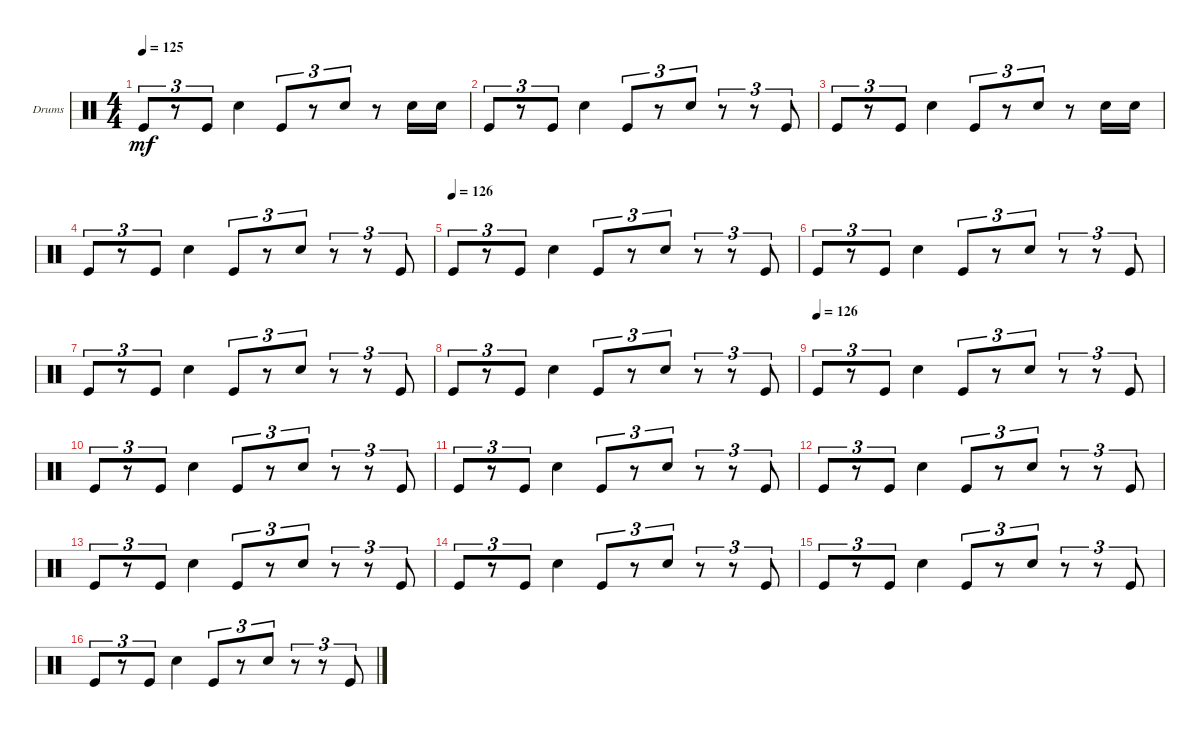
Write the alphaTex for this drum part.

\defaultSystemsLayout 4
\bracketExtendMode groupsimilarinstruments
\firstSystemTrackNameOrientation horizontal
\otherSystemsTrackNameOrientation horizontal
\track ("Drumkit" "Drums") {instrument percussion}
\staff {score}
\articulation defaults
\ts (4 4)
\tempo 125
\clef neutral
\scale
0.333333
\ks c "Kick (hit)".8{tu (3 2) dy mf}
r.8{tu (3 2)} "Kick (hit)".8{tu (3 2)} "Snare (hit) 2".4 "Kick (hit)".8{tu (3 2)} r.8{tu (3 2)} "Snare (hit) 2".8{tu (3 2)} r.8 "Snare (hit) 2".16 "Snare (hit) 2".16 |
\scale
0.333333 "Kick (hit)".8{tu (3 2)} r.8{tu (3 2)} "Kick (hit)".8{tu (3 2)} "Snare (hit) 2".4 "Kick (hit)".8{tu (3 2)} r.8{tu (3 2)} "Snare (hit) 2".8{tu (3 2)} r.8{tu (3 2)} r.8{tu (3 2)} "Kick (hit)".8{tu (3 2)} |
\scale
0.333333 "Kick (hit)".8{tu (3 2)} r.8{tu (3 2)} "Kick (hit)".8{tu (3 2)} "Snare (hit) 2".4 "Kick (hit)".8{tu (3 2)} r.8{tu (3 2)} "Snare (hit) 2".8{tu (3 2)} r.8 "Snare (hit) 2".16 "Snare (hit) 2".16 |
\scale
0.333333 "Kick (hit)".8{tu (3 2)} r.8{tu (3 2)} "Kick (hit)".8{tu (3 2)} "Snare (hit) 2".4 "Kick (hit)".8{tu (3 2)} r.8{tu (3 2)} "Snare (hit) 2".8{tu (3 2)} r.8{tu (3 2)} r.8{tu (3 2)} "Kick (hit)".8{tu (3 2)} |
\tempo 126
\scale
0.333333 "Kick (hit)".8{tu (3 2)} r.8{tu (3 2)} "Kick (hit)".8{tu (3 2)} "Snare (hit) 2".4 "Kick (hit)".8{tu (3 2)} r.8{tu (3 2)} "Snare (hit) 2".8{tu (3 2)} r.8{tu (3 2)} r.8{tu (3 2)} "Kick (hit)".8{tu (3 2)} |
\scale
0.333333 "Kick (hit)".8{tu (3 2)} r.8{tu (3 2)} "Kick (hit)".8{tu (3 2)} "Snare (hit) 2".4 "Kick (hit)".8{tu (3 2)} r.8{tu (3 2)} "Snare (hit) 2".8{tu (3 2)} r.8{tu (3 2)} r.8{tu (3 2)} "Kick (hit)".8{tu (3 2)} |
\scale
0.333333 "Kick (hit)".8{tu (3 2)} r.8{tu (3 2)} "Kick (hit)".8{tu (3 2)} "Snare (hit) 2".4 "Kick (hit)".8{tu (3 2)} r.8{tu (3 2)} "Snare (hit) 2".8{tu (3 2)} r.8{tu (3 2)} r.8{tu (3 2)} "Kick (hit)".8{tu (3 2)} |
\scale
0.333333 "Kick (hit)".8{tu (3 2)} r.8{tu (3 2)} "Kick (hit)".8{tu (3 2)} "Snare (hit) 2".4 "Kick (hit)".8{tu (3 2)} r.8{tu (3 2)} "Snare (hit) 2".8{tu (3 2)} r.8{tu (3 2)} r.8{tu (3 2)} "Kick (hit)".8{tu (3 2)} |
\tempo 126
\scale
0.333333 "Kick (hit)".8{tu (3 2)} r.8{tu (3 2)} "Kick (hit)".8{tu (3 2)} "Snare (hit) 2".4 "Kick (hit)".8{tu (3 2)} r.8{tu (3 2)} "Snare (hit) 2".8{tu (3 2)} r.8{tu (3 2)} r.8{tu (3 2)} "Kick (hit)".8{tu (3 2)} |
\scale
0.333333 "Kick (hit)".8{tu (3 2)} r.8{tu (3 2)} "Kick (hit)".8{tu (3 2)} "Snare (hit) 2".4 "Kick (hit)".8{tu (3 2)} r.8{tu (3 2)} "Snare (hit) 2".8{tu (3 2)} r.8{tu (3 2)} r.8{tu (3 2)} "Kick (hit)".8{tu (3 2)} |
\scale
0.333333 "Kick (hit)".8{tu (3 2)} r.8{tu (3 2)} "Kick (hit)".8{tu (3 2)} "Snare (hit) 2".4 "Kick (hit)".8{tu (3 2)} r.8{tu (3 2)} "Snare (hit) 2".8{tu (3 2)} r.8{tu (3 2)} r.8{tu (3 2)} "Kick (hit)".8{tu (3 2)} |
\scale
0.333333 "Kick (hit)".8{tu (3 2)} r.8{tu (3 2)} "Kick (hit)".8{tu (3 2)} "Snare (hit) 2".4 "Kick (hit)".8{tu (3 2)} r.8{tu (3 2)} "Snare (hit) 2".8{tu (3 2)} r.8{tu (3 2)} r.8{tu (3 2)} "Kick (hit)".8{tu (3 2)} |
\scale
0.333333 "Kick (hit)".8{tu (3 2)} r.8{tu (3 2)} "Kick (hit)".8{tu (3 2)} "Snare (hit) 2".4 "Kick (hit)".8{tu (3 2)} r.8{tu (3 2)} "Snare (hit) 2".8{tu (3 2)} r.8{tu (3 2)} r.8{tu (3 2)} "Kick (hit)".8{tu (3 2)} |
\scale
0.333333 "Kick (hit)".8{tu (3 2)} r.8{tu (3 2)} "Kick (hit)".8{tu (3 2)} "Snare (hit) 2".4 "Kick (hit)".8{tu (3 2)} r.8{tu (3 2)} "Snare (hit) 2".8{tu (3 2)} r.8{tu (3 2)} r.8{tu (3 2)} "Kick (hit)".8{tu (3 2)} |
\scale
0.333333 "Kick (hit)".8{tu (3 2)} r.8{tu (3 2)} "Kick (hit)".8{tu (3 2)} "Snare (hit) 2".4 "Kick (hit)".8{tu (3 2)} r.8{tu (3 2)} "Snare (hit) 2".8{tu (3 2)} r.8{tu (3 2)} r.8{tu (3 2)} "Kick (hit)".8{tu (3 2)} |
\scale
0.333333 "Kick (hit)".8{tu (3 2)} r.8{tu (3 2)} "Kick (hit)".8{tu (3 2)} "Snare (hit) 2".4 "Kick (hit)".8{tu (3 2)} r.8{tu (3 2)} "Snare (hit) 2".8{tu (3 2)} r.8{tu (3 2)} r.8{tu (3 2)} "Kick (hit)".8{tu (3 2)}
